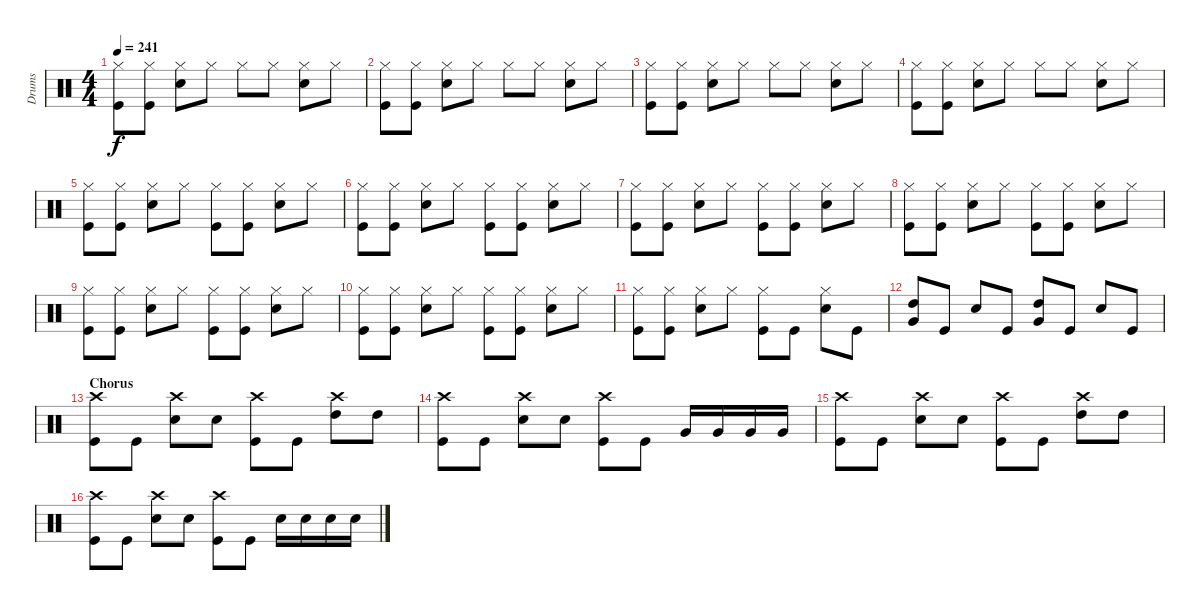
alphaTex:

\track ("Drums" "Drums") {instrument percussion}
\staff {score}
\articulation defaults
\ts (4 4)
\tempo 241
\clef neutral
\ks c
("Hi-Hat (closed)" "Kick (hit)").8{dy f} ("Hi-Hat (closed)" "Kick (hit)").8 ("Hi-Hat (closed)" "Electric Snare (hit)").8 "Hi-Hat (closed)".8 "Hi-Hat (closed)".8 "Hi-Hat (closed)".8 ("Hi-Hat (closed)" "Electric Snare (hit)").8 "Hi-Hat (closed)".8 |
("Hi-Hat (closed)" "Kick (hit)").8 ("Hi-Hat (closed)" "Kick (hit)").8 ("Hi-Hat (closed)" "Electric Snare (hit)").8 "Hi-Hat (closed)".8 "Hi-Hat (closed)".8 "Hi-Hat (closed)".8 ("Hi-Hat (closed)" "Electric Snare (hit)").8 "Hi-Hat (closed)".8 |
("Hi-Hat (closed)" "Kick (hit)").8 ("Hi-Hat (closed)" "Kick (hit)").8 ("Hi-Hat (closed)" "Electric Snare (hit)").8 "Hi-Hat (closed)".8 "Hi-Hat (closed)".8 "Hi-Hat (closed)".8 ("Hi-Hat (closed)" "Electric Snare (hit)").8 "Hi-Hat (closed)".8 |
("Hi-Hat (closed)" "Kick (hit)").8 ("Hi-Hat (closed)" "Kick (hit)").8 ("Hi-Hat (closed)" "Electric Snare (hit)").8 "Hi-Hat (closed)".8 "Hi-Hat (closed)".8 "Hi-Hat (closed)".8 ("Hi-Hat (closed)" "Electric Snare (hit)").8 "Hi-Hat (closed)".8 |
("Hi-Hat (closed)" "Kick (hit)").8 ("Hi-Hat (closed)" "Kick (hit)").8 ("Hi-Hat (closed)" "Electric Snare (hit)").8 "Hi-Hat (closed)".8 ("Hi-Hat (closed)" "Kick (hit)").8 ("Hi-Hat (closed)" "Kick (hit)").8 ("Hi-Hat (closed)" "Electric Snare (hit)").8 "Hi-Hat (closed)".8 |
("Hi-Hat (closed)" "Kick (hit)").8 ("Hi-Hat (closed)" "Kick (hit)").8 ("Hi-Hat (closed)" "Electric Snare (hit)").8 "Hi-Hat (closed)".8 ("Hi-Hat (closed)" "Kick (hit)").8 ("Hi-Hat (closed)" "Kick (hit)").8 ("Hi-Hat (closed)" "Electric Snare (hit)").8 "Hi-Hat (closed)".8 |
("Hi-Hat (closed)" "Kick (hit)").8 ("Hi-Hat (closed)" "Kick (hit)").8 ("Hi-Hat (closed)" "Electric Snare (hit)").8 "Hi-Hat (closed)".8 ("Hi-Hat (closed)" "Kick (hit)").8 ("Hi-Hat (closed)" "Kick (hit)").8 ("Hi-Hat (closed)" "Electric Snare (hit)").8 "Hi-Hat (closed)".8 |
("Hi-Hat (closed)" "Kick (hit)").8 ("Hi-Hat (closed)" "Kick (hit)").8 ("Hi-Hat (closed)" "Electric Snare (hit)").8 "Hi-Hat (closed)".8 ("Hi-Hat (closed)" "Kick (hit)").8 ("Hi-Hat (closed)" "Kick (hit)").8 ("Hi-Hat (closed)" "Electric Snare (hit)").8 "Hi-Hat (closed)".8 |
("Hi-Hat (closed)" "Kick (hit)").8 ("Hi-Hat (closed)" "Kick (hit)").8 ("Hi-Hat (closed)" "Electric Snare (hit)").8 "Hi-Hat (closed)".8 ("Hi-Hat (closed)" "Kick (hit)").8 ("Hi-Hat (closed)" "Kick (hit)").8 ("Hi-Hat (closed)" "Electric Snare (hit)").8 "Hi-Hat (closed)".8 |
("Hi-Hat (closed)" "Kick (hit)").8 ("Hi-Hat (closed)" "Kick (hit)").8 ("Hi-Hat (closed)" "Electric Snare (hit)").8 "Hi-Hat (closed)".8 ("Hi-Hat (closed)" "Kick (hit)").8 ("Hi-Hat (closed)" "Kick (hit)").8 ("Hi-Hat (closed)" "Electric Snare (hit)").8 "Hi-Hat (closed)".8 |
("Hi-Hat (closed)" "Kick (hit)").8 ("Hi-Hat (closed)" "Kick (hit)").8 ("Hi-Hat (closed)" "Electric Snare (hit)").8 "Hi-Hat (closed)".8 ("Hi-Hat (closed)" "Kick (hit)").8 "Kick (hit)".8 ("Hi-Hat (closed)" "Electric Snare (hit)").8 "Kick (hit)".8 |
("High Tom (hit)" "Very Low Tom (hit)").8 "Kick (hit)".8 "Electric Snare (hit)".8 "Kick (hit)".8 ("High Tom (hit)" "Very Low Tom (hit)").8 "Kick (hit)".8 "Electric Snare (hit)".8 "Kick (hit)".8 |
\section ("" "Chorus")
("Crash high (hit)" "Kick (hit)").8 "Kick (hit)".8 ("Crash high (hit)" "Electric Snare (hit)").8 "Electric Snare (hit)".8 ("Crash high (hit)" "Kick (hit)").8 "Kick (hit)".8 ("Crash high (hit)" "High Tom (hit)").8 "High Tom (hit)".8 |
("Crash high (hit)" "Kick (hit)").8 "Kick (hit)".8 ("Crash high (hit)" "Electric Snare (hit)").8 "Electric Snare (hit)".8 ("Crash high (hit)" "Kick (hit)").8 "Kick (hit)".8 "Very Low Tom (hit)".16 "Very Low Tom (hit)".16 "Very Low Tom (hit)".16 "Very Low Tom (hit)".16 |
("Crash high (hit)" "Kick (hit)").8 "Kick (hit)".8 ("Crash high (hit)" "Electric Snare (hit)").8 "Electric Snare (hit)".8 ("Crash high (hit)" "Kick (hit)").8 "Kick (hit)".8 ("Crash high (hit)" "High Tom (hit)").8 "High Tom (hit)".8 |
("Crash high (hit)" "Kick (hit)").8 "Kick (hit)".8 ("Crash high (hit)" "Electric Snare (hit)").8 "Electric Snare (hit)".8 ("Crash high (hit)" "Kick (hit)").8 "Kick (hit)".8 "Electric Snare (hit)".16 "Electric Snare (hit)".16 "Electric Snare (hit)".16 "Electric Snare (hit)".16
